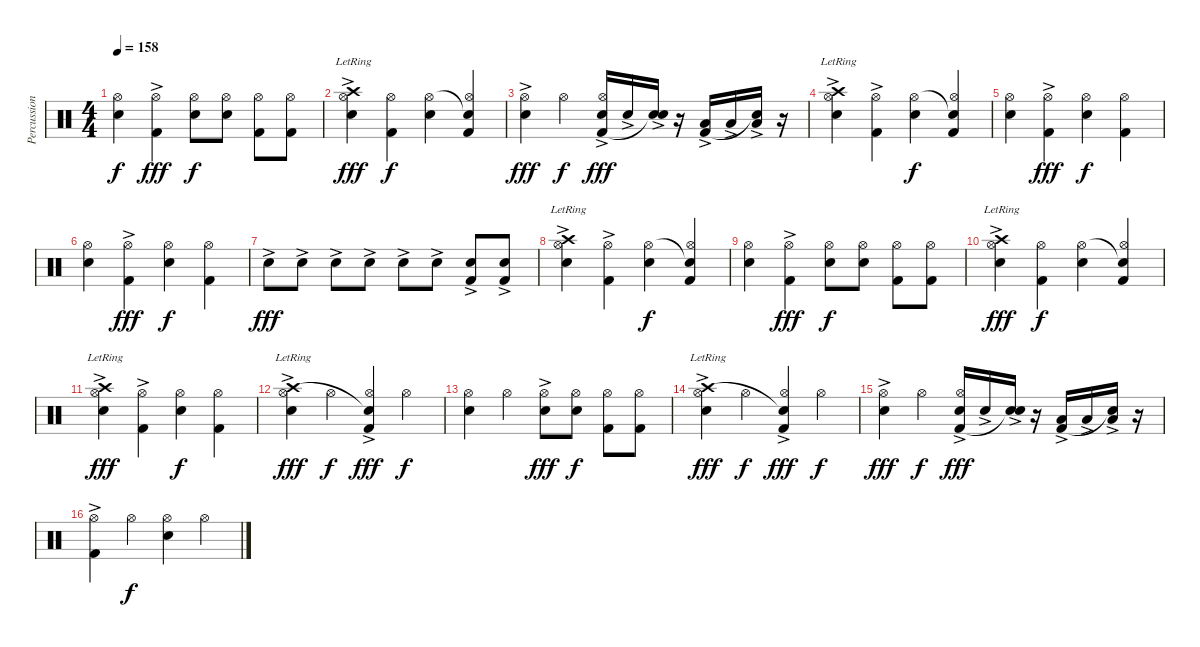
\track ("Percussion" "Percussion") {instrument percussion}
\staff {score}
\articulation defaults
\ts (4 4)
\tempo 158
\clef neutral
\ks c
("Snare (hit) 2" "Hi-Hat (open)").4{dy f} ("Kick (hit) 2"{ac} "Hi-Hat (open)").4{dy fff} ("Snare (hit) 2" "Hi-Hat (open)").8{dy f} ("Snare (hit) 2" "Hi-Hat (open)").8 ("Kick (hit) 2" "Hi-Hat (open)").8 ("Kick (hit) 2" "Hi-Hat (open)").8 |
("Snare (hit) 2"{ac} "Crash high (hit)"{ac lr} "Hi-Hat (open)").4{dy fff} ("Kick (hit) 2" "Hi-Hat (open)").4{dy f} ("Snare (hit) 2" "Hi-Hat (open)").4 ("Kick (hit) 2" "Snare (hit)"{t} "Hi-Hat (open)").4 |
("Snare (hit) 2"{ac} "Hi-Hat (open)").4{dy fff} "Hi-Hat (open)".4{dy f} ("Snare (hit) 2"{ac} "Kick (hit) 2" "Hi-Hat (open)").16{dy fff} "Snare (hit) 2"{ac}.16 ("Snare (hit) 2"{ac} "Snare (hit)"{t}).16 r.16 ("Low Floor Tom (hit)"{ac} "Kick (hit) 2").16 "Low Floor Tom (hit)"{ac}.16 ("Low Floor Tom (hit)"{ac} "Snare (hit)"{t}).16 r.16 |
("Snare (hit) 2" "Crash high (hit)"{ac lr} "Hi-Hat (open)").4 ("Kick (hit) 2"{ac} "Hi-Hat (open)").4 ("Snare (hit) 2" "Hi-Hat (open)").4{dy f} ("Kick (hit) 2" "Snare (hit)"{t} "Hi-Hat (open)").4 |
("Snare (hit) 2" "Hi-Hat (open)").4 ("Kick (hit) 2"{ac} "Hi-Hat (open)").4{dy fff} ("Snare (hit) 2" "Hi-Hat (open)").4{dy f} ("Kick (hit) 2" "Hi-Hat (open)").4 |
("Snare (hit) 2" "Hi-Hat (open)").4 ("Kick (hit) 2"{ac} "Hi-Hat (open)").4{dy fff} ("Snare (hit) 2" "Hi-Hat (open)").4{dy f} ("Kick (hit) 2" "Hi-Hat (open)").4 |
"Snare (hit) 2"{ac}.8{dy fff} "Snare (hit) 2"{ac}.8 "Snare (hit) 2"{ac}.8 "Snare (hit) 2"{ac}.8 "Snare (hit) 2"{ac}.8 "Snare (hit) 2"{ac}.8 ("Snare (hit) 2"{ac} "Kick (hit) 2"{ac}).8 ("Snare (hit) 2"{ac} "Kick (hit) 2"{ac}).8 |
("Snare (hit) 2" "Crash high (hit)"{ac lr} "Hi-Hat (open)").4 ("Kick (hit) 2"{ac} "Hi-Hat (open)").4 ("Snare (hit) 2" "Hi-Hat (open)").4{dy f} ("Kick (hit) 2" "Snare (hit)"{t} "Hi-Hat (open)").4 |
("Snare (hit) 2" "Hi-Hat (open)").4 ("Kick (hit) 2"{ac} "Hi-Hat (open)").4{dy fff} ("Snare (hit) 2" "Hi-Hat (open)").8{dy f} ("Snare (hit) 2" "Hi-Hat (open)").8 ("Kick (hit) 2" "Hi-Hat (open)").8 ("Kick (hit) 2" "Hi-Hat (open)").8 |
("Snare (hit) 2"{ac} "Crash high (hit)"{ac lr} "Hi-Hat (open)").4{dy fff} ("Kick (hit) 2" "Hi-Hat (open)").4{dy f} ("Snare (hit) 2" "Hi-Hat (open)").4 ("Kick (hit) 2" "Snare (hit)"{t} "Hi-Hat (open)").4 |
("Snare (hit) 2" "Crash high (hit)"{ac lr} "Hi-Hat (open)").4{dy fff} ("Kick (hit) 2"{ac} "Hi-Hat (open)").4 ("Snare (hit) 2" "Hi-Hat (open)").4{dy f} ("Kick (hit) 2" "Hi-Hat (open)").4 |
("Snare (hit) 2" "Crash high (hit)"{ac lr} "Hi-Hat (open)").4{dy fff} "Hi-Hat (open)".4{dy f} ("Kick (hit) 2"{ac} "Snare (hit)"{t} "Hi-Hat (open)").4{dy fff} "Hi-Hat (open)".4{dy f} |
("Snare (hit) 2" "Hi-Hat (open)").4 "Hi-Hat (open)".4 ("Snare (hit) 2"{ac} "Hi-Hat (open)").8{dy fff} ("Snare (hit) 2" "Hi-Hat (open)").8{dy f} ("Kick (hit) 2" "Hi-Hat (open)").8 ("Kick (hit) 2" "Hi-Hat (open)").8 |
("Snare (hit) 2"{ac} "Crash high (hit)"{ac lr} "Hi-Hat (open)").4{dy fff} "Hi-Hat (open)".4{dy f} ("Kick (hit) 2"{ac} "Snare (hit)"{t} "Hi-Hat (open)").4{dy fff} "Hi-Hat (open)".4{dy f} |
("Snare (hit) 2"{ac} "Hi-Hat (open)").4{dy fff} "Hi-Hat (open)".4{dy f} ("Snare (hit) 2"{ac} "Kick (hit) 2" "Hi-Hat (open)").16{dy fff} "Snare (hit) 2"{ac}.16 ("Snare (hit) 2"{ac} "Snare (hit)"{t}).16 r.16 ("Low Floor Tom (hit)"{ac} "Kick (hit) 2").16 "Low Floor Tom (hit)"{ac}.16 ("Low Floor Tom (hit)"{ac} "Snare (hit)"{t}).16 r.16 |
("Kick (hit) 2"{ac} "Hi-Hat (open)").4 "Hi-Hat (open)".4{dy f} ("Snare (hit) 2" "Hi-Hat (open)").4 "Hi-Hat (open)".4
